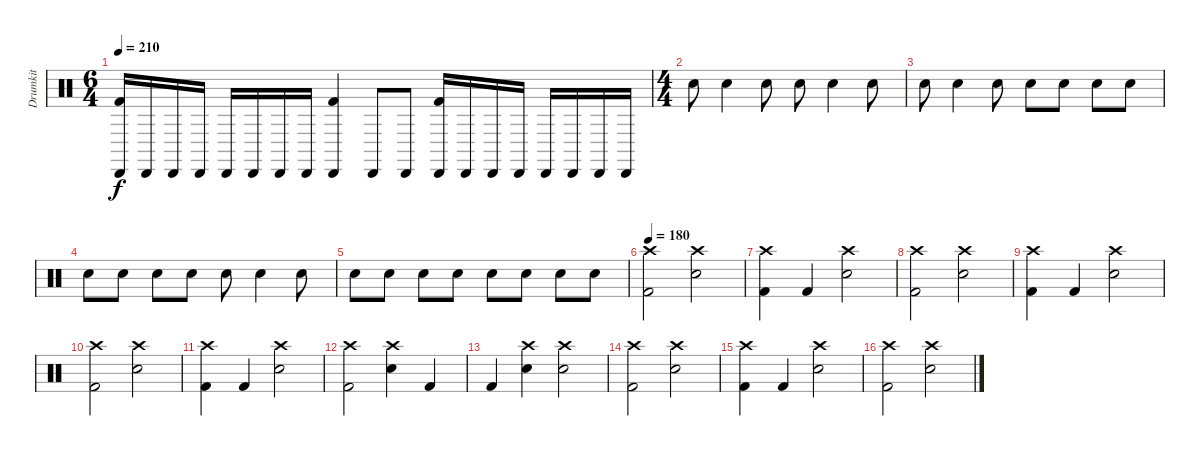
\track ("Drumkit" "Drumkit") {instrument percussion}
\staff {score}
\articulation defaults
\ts (6 4)
\tempo 210
\clef neutral
\ks c
("Cabasa (hit)" "Kick (hit) 2").16{dy f} "Cabasa (hit)".16 "Cabasa (hit)".16 "Cabasa (hit)".16 "Cabasa (hit)".16 "Cabasa (hit)".16 "Cabasa (hit)".16 "Cabasa (hit)".16 ("Cabasa (hit)" "Kick (hit) 2").4 "Cabasa (hit)".8 "Cabasa (hit)".8 ("Cabasa (hit)" "Kick (hit) 2").16 "Cabasa (hit)".16 "Cabasa (hit)".16 "Cabasa (hit)".16 "Cabasa (hit)".16 "Cabasa (hit)".16 "Cabasa (hit)".16 "Cabasa (hit)".16 |
\ts (4 4)
"Electric Snare (hit)".8 "Electric Snare (hit)".4 "Electric Snare (hit)".8 "Electric Snare (hit)".8 "Electric Snare (hit)".4 "Electric Snare (hit)".8 |
"Electric Snare (hit)".8 "Electric Snare (hit)".4 "Electric Snare (hit)".8 "Electric Snare (hit)".8 "Electric Snare (hit)".8 "Electric Snare (hit)".8 "Electric Snare (hit)".8 |
"Electric Snare (hit)".8 "Electric Snare (hit)".8 "Electric Snare (hit)".8 "Electric Snare (hit)".8 "Electric Snare (hit)".8 "Electric Snare (hit)".4 "Electric Snare (hit)".8 |
"Electric Snare (hit)".8 "Electric Snare (hit)".8 "Electric Snare (hit)".8 "Electric Snare (hit)".8 "Electric Snare (hit)".8 "Electric Snare (hit)".8 "Electric Snare (hit)".8 "Electric Snare (hit)".8 |
\tempo 180
("Crash high (hit)" "Kick (hit) 2").2 ("Crash high (hit)" "Electric Snare (hit)").2 |
("Crash high (hit)" "Kick (hit) 2").4 "Kick (hit) 2".4 ("Crash high (hit)" "Electric Snare (hit)").2 |
("Crash high (hit)" "Kick (hit) 2").2 ("Crash high (hit)" "Electric Snare (hit)").2 |
("Crash high (hit)" "Kick (hit) 2").4 "Kick (hit) 2".4 ("Crash high (hit)" "Electric Snare (hit)").2 |
("Crash high (hit)" "Kick (hit) 2").2 ("Crash high (hit)" "Electric Snare (hit)").2 |
("Crash high (hit)" "Kick (hit) 2").4 "Kick (hit) 2".4 ("Crash high (hit)" "Electric Snare (hit)").2 |
("Crash high (hit)" "Kick (hit) 2").2 ("Crash high (hit)" "Electric Snare (hit)").4 "Kick (hit) 2".4 |
"Kick (hit) 2".4 ("Crash high (hit)" "Electric Snare (hit)").4 ("Crash high (hit)" "Electric Snare (hit)").2 |
("Crash high (hit)" "Kick (hit) 2").2 ("Crash high (hit)" "Electric Snare (hit)").2 |
("Crash high (hit)" "Kick (hit) 2").4 "Kick (hit) 2".4 ("Crash high (hit)" "Electric Snare (hit)").2 |
("Crash high (hit)" "Kick (hit) 2").2 ("Crash high (hit)" "Electric Snare (hit)").2
